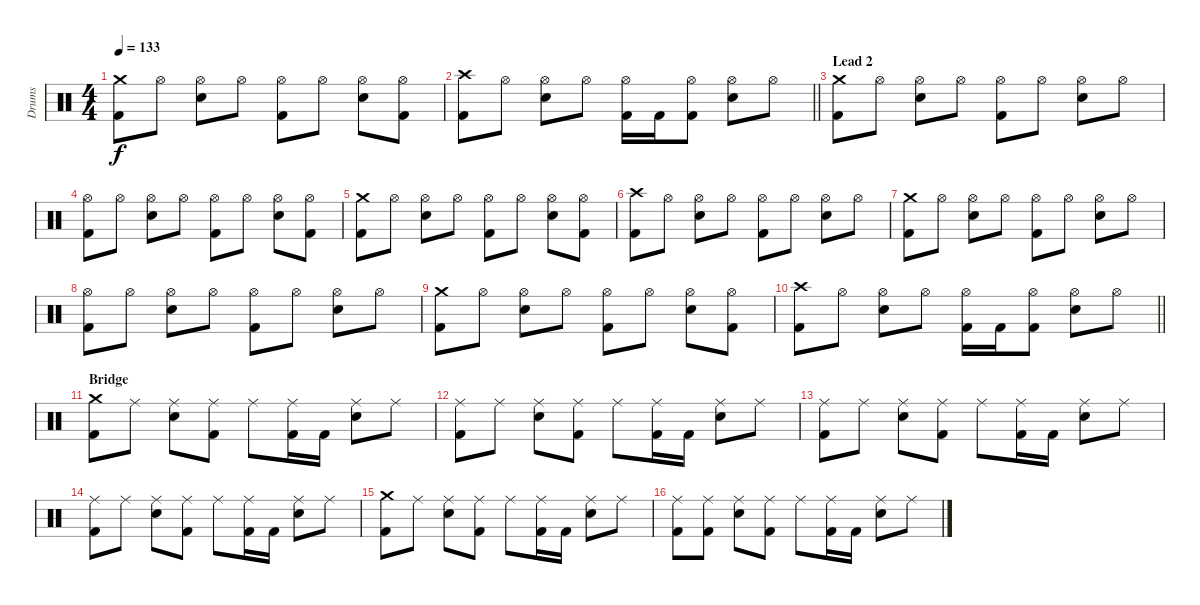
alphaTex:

\track ("Drums" "Drums") {instrument percussion}
\staff {score}
\articulation defaults
\ts (4 4)
\tempo 133
\clef neutral
\ks c
("Crash medium (hit)" "Kick (hit) 2").8{dy f} "Hi-Hat (open)".8 ("Hi-Hat (open)" "Snare (hit) 2").8 "Hi-Hat (open)".8 ("Hi-Hat (open)" "Kick (hit) 2").8 "Hi-Hat (open)".8 ("Hi-Hat (open)" "Snare (hit) 2").8 ("Hi-Hat (open)" "Kick (hit) 2").8 |
\barLineRight lightlight
("Crash high (hit)" "Kick (hit) 2").8 "Hi-Hat (open)".8 ("Hi-Hat (open)" "Snare (hit) 2").8 "Hi-Hat (open)".8 ("Hi-Hat (open)" "Kick (hit) 2").16 "Kick (hit) 2".16 ("Hi-Hat (open)" "Kick (hit) 2").8 ("Hi-Hat (open)" "Snare (hit) 2").8 "Hi-Hat (open)".8 |
\section ("" "Lead 2")
("Crash medium (hit)" "Kick (hit) 2").8 "Hi-Hat (open)".8 ("Hi-Hat (open)" "Snare (hit) 2").8 "Hi-Hat (open)".8 ("Hi-Hat (open)" "Kick (hit) 2").8 "Hi-Hat (open)".8 ("Hi-Hat (open)" "Snare (hit) 2").8 "Hi-Hat (open)".8 |
("Hi-Hat (open)" "Kick (hit) 2").8 "Hi-Hat (open)".8 ("Hi-Hat (open)" "Snare (hit) 2").8 "Hi-Hat (open)".8 ("Hi-Hat (open)" "Kick (hit) 2").8 "Hi-Hat (open)".8 ("Hi-Hat (open)" "Snare (hit) 2").8 ("Hi-Hat (open)" "Kick (hit) 2").8 |
("Crash medium (hit)" "Kick (hit) 2").8 "Hi-Hat (open)".8 ("Hi-Hat (open)" "Snare (hit) 2").8 "Hi-Hat (open)".8 ("Hi-Hat (open)" "Kick (hit) 2").8 "Hi-Hat (open)".8 ("Hi-Hat (open)" "Snare (hit) 2").8 ("Hi-Hat (open)" "Kick (hit) 2").8 |
("Crash high (hit)" "Kick (hit) 2").8 "Hi-Hat (open)".8 ("Hi-Hat (open)" "Snare (hit) 2").8 "Hi-Hat (open)".8 ("Hi-Hat (open)" "Kick (hit) 2").8 "Hi-Hat (open)".8 ("Hi-Hat (open)" "Snare (hit) 2").8 "Hi-Hat (open)".8 |
("Crash medium (hit)" "Kick (hit) 2").8 "Hi-Hat (open)".8 ("Hi-Hat (open)" "Snare (hit) 2").8 "Hi-Hat (open)".8 ("Hi-Hat (open)" "Kick (hit) 2").8 "Hi-Hat (open)".8 ("Hi-Hat (open)" "Snare (hit) 2").8 "Hi-Hat (open)".8 |
("Hi-Hat (open)" "Kick (hit) 2").8 "Hi-Hat (open)".8 ("Hi-Hat (open)" "Snare (hit) 2").8 "Hi-Hat (open)".8 ("Hi-Hat (open)" "Kick (hit) 2").8 "Hi-Hat (open)".8 ("Hi-Hat (open)" "Snare (hit) 2").8 "Hi-Hat (open)".8 |
("Crash medium (hit)" "Kick (hit) 2").8 "Hi-Hat (open)".8 ("Hi-Hat (open)" "Snare (hit) 2").8 "Hi-Hat (open)".8 ("Hi-Hat (open)" "Kick (hit) 2").8 "Hi-Hat (open)".8 ("Hi-Hat (open)" "Snare (hit) 2").8 ("Hi-Hat (open)" "Kick (hit) 2").8 |
\barLineRight lightlight
("Crash high (hit)" "Kick (hit) 2").8 "Hi-Hat (open)".8 ("Hi-Hat (open)" "Snare (hit) 2").8 "Hi-Hat (open)".8 ("Hi-Hat (open)" "Kick (hit) 2").16 "Kick (hit) 2".16 ("Hi-Hat (open)" "Kick (hit) 2").8 ("Hi-Hat (open)" "Snare (hit) 2").8 "Hi-Hat (open)".8 |
\section ("" "Bridge")
("Crash medium (hit)" "Kick (hit) 2").8 "Ride (middle)".8 ("Ride (middle)" "Snare (hit) 2").8 ("Ride (middle)" "Kick (hit) 2").8 "Ride (middle)".8 ("Ride (middle)" "Kick (hit) 2").16 "Kick (hit) 2".16 ("Ride (middle)" "Snare (hit) 2").8 "Ride (middle)".8 |
("Ride (middle)" "Kick (hit) 2").8 "Ride (middle)".8 ("Ride (middle)" "Snare (hit) 2").8 ("Ride (middle)" "Kick (hit) 2").8 "Ride (middle)".8 ("Ride (middle)" "Kick (hit) 2").16 "Kick (hit) 2".16 ("Ride (middle)" "Snare (hit) 2").8 "Ride (middle)".8 |
("Ride (middle)" "Kick (hit) 2").8 "Ride (middle)".8 ("Ride (middle)" "Snare (hit) 2").8 ("Ride (middle)" "Kick (hit) 2").8 "Ride (middle)".8 ("Ride (middle)" "Kick (hit) 2").16 "Kick (hit) 2".16 ("Ride (middle)" "Snare (hit) 2").8 "Ride (middle)".8 |
("Ride (middle)" "Kick (hit) 2").8 "Ride (middle)".8 ("Ride (middle)" "Snare (hit) 2").8 ("Ride (middle)" "Kick (hit) 2").8 "Ride (middle)".8 ("Ride (middle)" "Kick (hit) 2").16 "Kick (hit) 2".16 ("Ride (middle)" "Snare (hit) 2").8 "Ride (middle)".8 |
("Crash medium (hit)" "Kick (hit) 2").8 "Ride (middle)".8 ("Ride (middle)" "Snare (hit) 2").8 ("Ride (middle)" "Kick (hit) 2").8 "Ride (middle)".8 ("Ride (middle)" "Kick (hit) 2").16 "Kick (hit) 2".16 ("Ride (middle)" "Snare (hit) 2").8 "Ride (middle)".8 |
("Ride (middle)" "Kick (hit) 2").8 ("Ride (middle)" "Kick (hit) 2").8 ("Ride (middle)" "Snare (hit) 2").8 ("Ride (middle)" "Kick (hit) 2").8 "Ride (middle)".8 ("Ride (middle)" "Kick (hit) 2").16 "Kick (hit) 2".16 ("Ride (middle)" "Snare (hit) 2").8 "Ride (middle)".8
